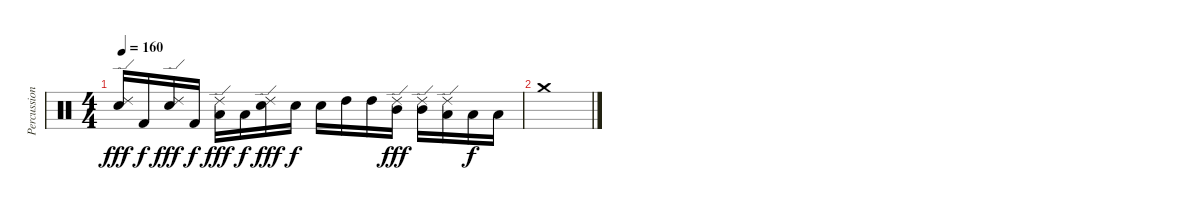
\track ("Percussion" "Percussion") {instrument percussion}
\staff {score}
\articulation defaults
\ts (4 4)
\tempo 160
\clef neutral
\ks c
("Ride (edge) 2" "Electric Snare (hit)").16{dy fff} "Kick (hit) 2".16{dy f} ("Ride (edge) 2" "Electric Snare (hit)").16{dy fff} "Kick (hit) 2".16{dy f} ("Ride (edge) 2" "Low Tom (hit)").16{dy fff} "Low Tom (hit)".16{dy f} ("Ride (edge) 2" "Electric Snare (hit)").16{dy fff} "Electric Snare (hit)".16{dy f} "Electric Snare (hit)".16 "High Tom (hit)".16 "High Tom (hit)".16 ("Ride (edge) 2" "Mid Tom (hit)").16{dy fff} ("Ride (edge) 2" "Mid Tom (hit)").16 ("Ride (edge) 2" "Low Tom (hit)").16 "Low Tom (hit)".16{dy f} "Low Tom (hit)".16 |
"Crash medium (hit)".1
